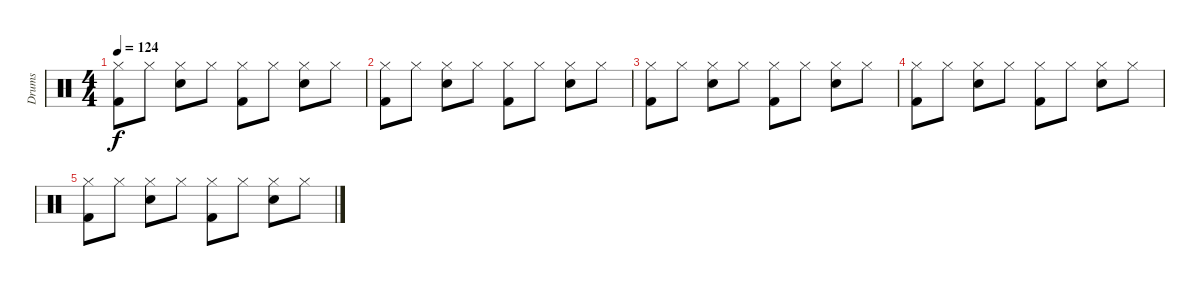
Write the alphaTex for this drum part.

\track ("Drums" "Drums") {instrument percussion}
\staff {score}
\articulation defaults
\ts (4 4)
\tempo 124
\clef neutral
\ks c
("Kick (hit) 2" "Hi-Hat (closed)").8{dy f} "Hi-Hat (closed)".8 ("Electric Snare (hit)" "Hi-Hat (closed)").8 "Hi-Hat (closed)".8 ("Kick (hit) 2" "Hi-Hat (closed)").8 "Hi-Hat (closed)".8 ("Electric Snare (hit)" "Hi-Hat (closed)").8 "Hi-Hat (closed)".8 |
("Kick (hit) 2" "Hi-Hat (closed)").8 "Hi-Hat (closed)".8 ("Electric Snare (hit)" "Hi-Hat (closed)").8 "Hi-Hat (closed)".8 ("Kick (hit) 2" "Hi-Hat (closed)").8 "Hi-Hat (closed)".8 ("Electric Snare (hit)" "Hi-Hat (closed)").8 "Hi-Hat (closed)".8 |
("Kick (hit) 2" "Hi-Hat (closed)").8 "Hi-Hat (closed)".8 ("Electric Snare (hit)" "Hi-Hat (closed)").8 "Hi-Hat (closed)".8 ("Kick (hit) 2" "Hi-Hat (closed)").8 "Hi-Hat (closed)".8 ("Electric Snare (hit)" "Hi-Hat (closed)").8 "Hi-Hat (closed)".8 |
("Kick (hit) 2" "Hi-Hat (closed)").8 "Hi-Hat (closed)".8 ("Electric Snare (hit)" "Hi-Hat (closed)").8 "Hi-Hat (closed)".8 ("Kick (hit) 2" "Hi-Hat (closed)").8 "Hi-Hat (closed)".8 ("Electric Snare (hit)" "Hi-Hat (closed)").8 "Hi-Hat (closed)".8 |
("Kick (hit) 2" "Hi-Hat (closed)").8 "Hi-Hat (closed)".8 ("Electric Snare (hit)" "Hi-Hat (closed)").8 "Hi-Hat (closed)".8 ("Kick (hit) 2" "Hi-Hat (closed)").8 "Hi-Hat (closed)".8 ("Electric Snare (hit)" "Hi-Hat (closed)").8 "Hi-Hat (closed)".8
